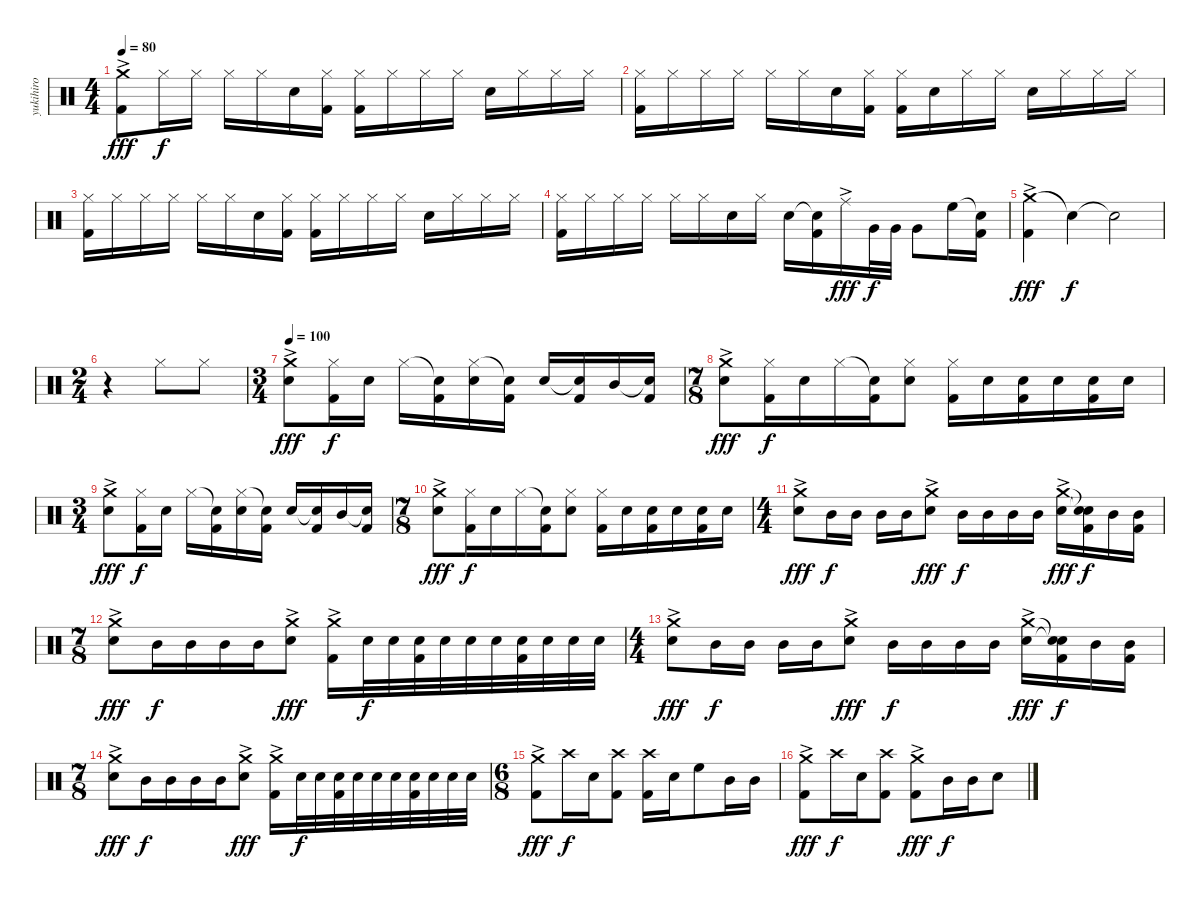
\track ("yukihiro" "yukihiro") {instrument percussion}
\staff {score}
\articulation defaults
\ts (4 4)
\tempo 80
\clef neutral
\ks c
("Crash medium (hit)"{ac} "Kick (hit) 2").8{dy fff} "Hi-Hat (closed)".16{dy f} "Hi-Hat (closed)".16 "Hi-Hat (closed)".16 "Hi-Hat (closed)".16 "Snare (hit) 2".16 ("Hi-Hat (closed)" "Kick (hit) 2").16 ("Hi-Hat (closed)" "Kick (hit) 2").16 "Hi-Hat (closed)".16 "Hi-Hat (closed)".16 "Hi-Hat (closed)".16 "Snare (hit) 2".16 "Hi-Hat (closed)".16 "Hi-Hat (closed)".16 "Hi-Hat (closed)".16 |
("Hi-Hat (closed)" "Kick (hit) 2").16 "Hi-Hat (closed)".16 "Hi-Hat (closed)".16 "Hi-Hat (closed)".16 "Hi-Hat (closed)".16 "Hi-Hat (closed)".16 "Snare (hit) 2".16 ("Hi-Hat (closed)" "Kick (hit) 2").16 ("Hi-Hat (closed)" "Kick (hit) 2").16 "Snare (hit) 2".16 "Hi-Hat (closed)".16 "Hi-Hat (closed)".16 "Snare (hit) 2".16 "Hi-Hat (closed)".16 "Hi-Hat (closed)".16 "Hi-Hat (closed)".16 |
("Hi-Hat (closed)" "Kick (hit) 2").16 "Hi-Hat (closed)".16 "Hi-Hat (closed)".16 "Hi-Hat (closed)".16 "Hi-Hat (closed)".16 "Hi-Hat (closed)".16 "Snare (hit) 2".16 ("Hi-Hat (closed)" "Kick (hit) 2").16 ("Hi-Hat (closed)" "Kick (hit) 2").16 "Hi-Hat (closed)".16 "Hi-Hat (closed)".16 "Hi-Hat (closed)".16 "Snare (hit) 2".16 "Hi-Hat (closed)".16 "Hi-Hat (closed)".16 "Hi-Hat (closed)".16 |
("Hi-Hat (closed)" "Kick (hit) 2").16 "Hi-Hat (closed)".16 "Hi-Hat (closed)".16 "Hi-Hat (closed)".16 "Hi-Hat (closed)".16 "Hi-Hat (closed)".16 "Snare (hit) 2".16 "Hi-Hat (closed)".16 "Snare (hit) 2".16 ("Snare (hit)"{t} "Kick (hit) 2").16 "Ride (middle)"{ac}.16{dy fff} "Very Low Tom (hit)".32{dy f} "Very Low Tom (hit)".32 "Very Low Tom (hit)".8 "High Floor Tom (hit)".16 ("Snare (hit)"{t} "Kick (hit) 2").16 |
("Crash medium (hit)"{ac} "Kick (hit) 2").4{dy fff} "Snare (hit)"{t}.4{dy f} "Snare (hit)"{t}.2 |
\ts (2 4)
r.4 "Hi-Hat (closed)".8 "Hi-Hat (closed)".8 |
\ts (3 4)
\tempo 100
("Crash medium (hit)"{ac} "Snare (hit) 2").8{dy fff} ("Hi-Hat (closed)" "Kick (hit) 2").16{dy f} "Snare (hit) 2".16 "Hi-Hat (closed)".16 ("Snare (hit)"{t} "Kick (hit) 2").16 ("Hi-Hat (closed)" "Snare (hit) 2").16 ("Snare (hit)"{t} "Kick (hit) 2").16 "Snare (hit) 2".16 ("Snare (hit)"{t} "Kick (hit) 2").16 "Mid Tom (hit)".16 ("Snare (hit)"{t} "Kick (hit) 2").16 |
\ts (7 8)
("Crash medium (hit)"{ac} "Snare (hit) 2").8{dy fff} ("Hi-Hat (closed)" "Kick (hit) 2").16{dy f} "Snare (hit) 2".16 "Hi-Hat (closed)".16 ("Snare (hit)"{t} "Kick (hit) 2").16 ("Hi-Hat (closed)" "Snare (hit) 2").8 ("Hi-Hat (closed)" "Kick (hit) 2").16 "Snare (hit) 2".16 ("Snare (hit) 2" "Kick (hit) 2").16 "Snare (hit) 2".16 ("Snare (hit) 2" "Kick (hit) 2").16 "Snare (hit) 2".16 |
\ts (3 4)
("Crash medium (hit)"{ac} "Snare (hit) 2").8{dy fff} ("Hi-Hat (closed)" "Kick (hit) 2").16{dy f} "Snare (hit) 2".16 "Hi-Hat (closed)".16 ("Snare (hit)"{t} "Kick (hit) 2").16 ("Hi-Hat (closed)" "Snare (hit) 2").16 ("Snare (hit)"{t} "Kick (hit) 2").16 "Snare (hit) 2".16 ("Snare (hit)"{t} "Kick (hit) 2").16 "Mid Tom (hit)".16 ("Snare (hit)"{t} "Kick (hit) 2").16 |
\ts (7 8)
("Crash medium (hit)"{ac} "Snare (hit) 2").8{dy fff} ("Hi-Hat (closed)" "Kick (hit) 2").16{dy f} "Snare (hit) 2".16 "Hi-Hat (closed)".16 ("Snare (hit)"{t} "Kick (hit) 2").16 ("Hi-Hat (closed)" "Snare (hit) 2").8 ("Hi-Hat (closed)" "Kick (hit) 2").16 "Snare (hit) 2".16 ("Snare (hit) 2" "Kick (hit) 2").16 "Snare (hit) 2".16 ("Snare (hit) 2" "Kick (hit) 2").16 "Snare (hit) 2".16 |
\ts (4 4)
("Crash medium (hit)"{ac} "Snare (hit) 2").8{dy fff} "Mid Tom (hit)".16{dy f} "Mid Tom (hit)".16 "Mid Tom (hit)".16 "Mid Tom (hit)".16 ("Crash medium (hit)"{ac} "Snare (hit) 2").8{dy fff} "Mid Tom (hit)".16{dy f} "Mid Tom (hit)".16 "Mid Tom (hit)".16 "Mid Tom (hit)".16 ("Crash medium (hit)"{ac} "Snare (hit) 2").16{dy fff} ("Snare (hit)"{t} "Snare (hit)"{t} "Kick (hit) 2").16{dy f} "Mid Tom (hit)".16 ("Mid Tom (hit)" "Kick (hit) 2").16 |
\ts (7 8)
("Crash medium (hit)"{ac} "Snare (hit) 2").8{dy fff} "Mid Tom (hit)".16{dy f} "Mid Tom (hit)".16 "Mid Tom (hit)".16 "Mid Tom (hit)".16 ("Crash medium (hit)"{ac} "Snare (hit) 2").8{dy fff} ("Crash medium (hit)"{ac} "Kick (hit) 2").16 "Snare (hit) 2".32{dy f} "Snare (hit) 2".32 ("Snare (hit) 2" "Kick (hit) 2").32 "Snare (hit) 2".32 "Snare (hit) 2".32 "Snare (hit) 2".32 ("Snare (hit) 2" "Kick (hit) 2").32 "Snare (hit) 2".32 "Snare (hit) 2".32 "Snare (hit) 2".32 |
\ts (4 4)
("Crash medium (hit)"{ac} "Snare (hit) 2").8{dy fff} "Mid Tom (hit)".16{dy f} "Mid Tom (hit)".16 "Mid Tom (hit)".16 "Mid Tom (hit)".16 ("Crash medium (hit)"{ac} "Snare (hit) 2").8{dy fff} "Mid Tom (hit)".16{dy f} "Mid Tom (hit)".16 "Mid Tom (hit)".16 "Mid Tom (hit)".16 ("Crash medium (hit)"{ac} "Snare (hit) 2").16{dy fff} ("Snare (hit)"{t} "Snare (hit)"{t} "Kick (hit) 2").16{dy f} "Mid Tom (hit)".16 ("Mid Tom (hit)" "Kick (hit) 2").16 |
\ts (7 8)
("Crash medium (hit)"{ac} "Snare (hit) 2").8{dy fff} "Mid Tom (hit)".16{dy f} "Mid Tom (hit)".16 "Mid Tom (hit)".16 "Mid Tom (hit)".16 ("Crash medium (hit)"{ac} "Snare (hit) 2").8{dy fff} ("Crash medium (hit)"{ac} "Kick (hit) 2").16 "Snare (hit) 2".32{dy f} "Snare (hit) 2".32 ("Snare (hit) 2" "Kick (hit) 2").32 "Snare (hit) 2".32 "Snare (hit) 2".32 "Snare (hit) 2".32 ("Snare (hit) 2" "Kick (hit) 2").32 "Snare (hit) 2".32 "Snare (hit) 2".32 "Snare (hit) 2".32 |
\ts (6 8)
("Crash medium (hit)"{ac} "Kick (hit) 2").8{dy fff} "Crash high (hit)".16{dy f} "Snare (hit) 2".16 ("Crash high (hit)" "Kick (hit) 2").8 ("Crash high (hit)" "Kick (hit) 2").16 "Snare (hit) 2".16 "High Floor Tom (hit)".8 "Mid Tom (hit)".16 "Mid Tom (hit)".16 |
("Crash medium (hit)"{ac} "Kick (hit) 2").8{dy fff} "Crash high (hit)".16{dy f} "Snare (hit) 2".16 ("Crash high (hit)" "Kick (hit) 2").8 ("Crash medium (hit)"{ac} "Kick (hit) 2").8{dy fff} "Mid Tom (hit)".16{dy f} "Mid Tom (hit)".16 "Snare (hit) 2".8
